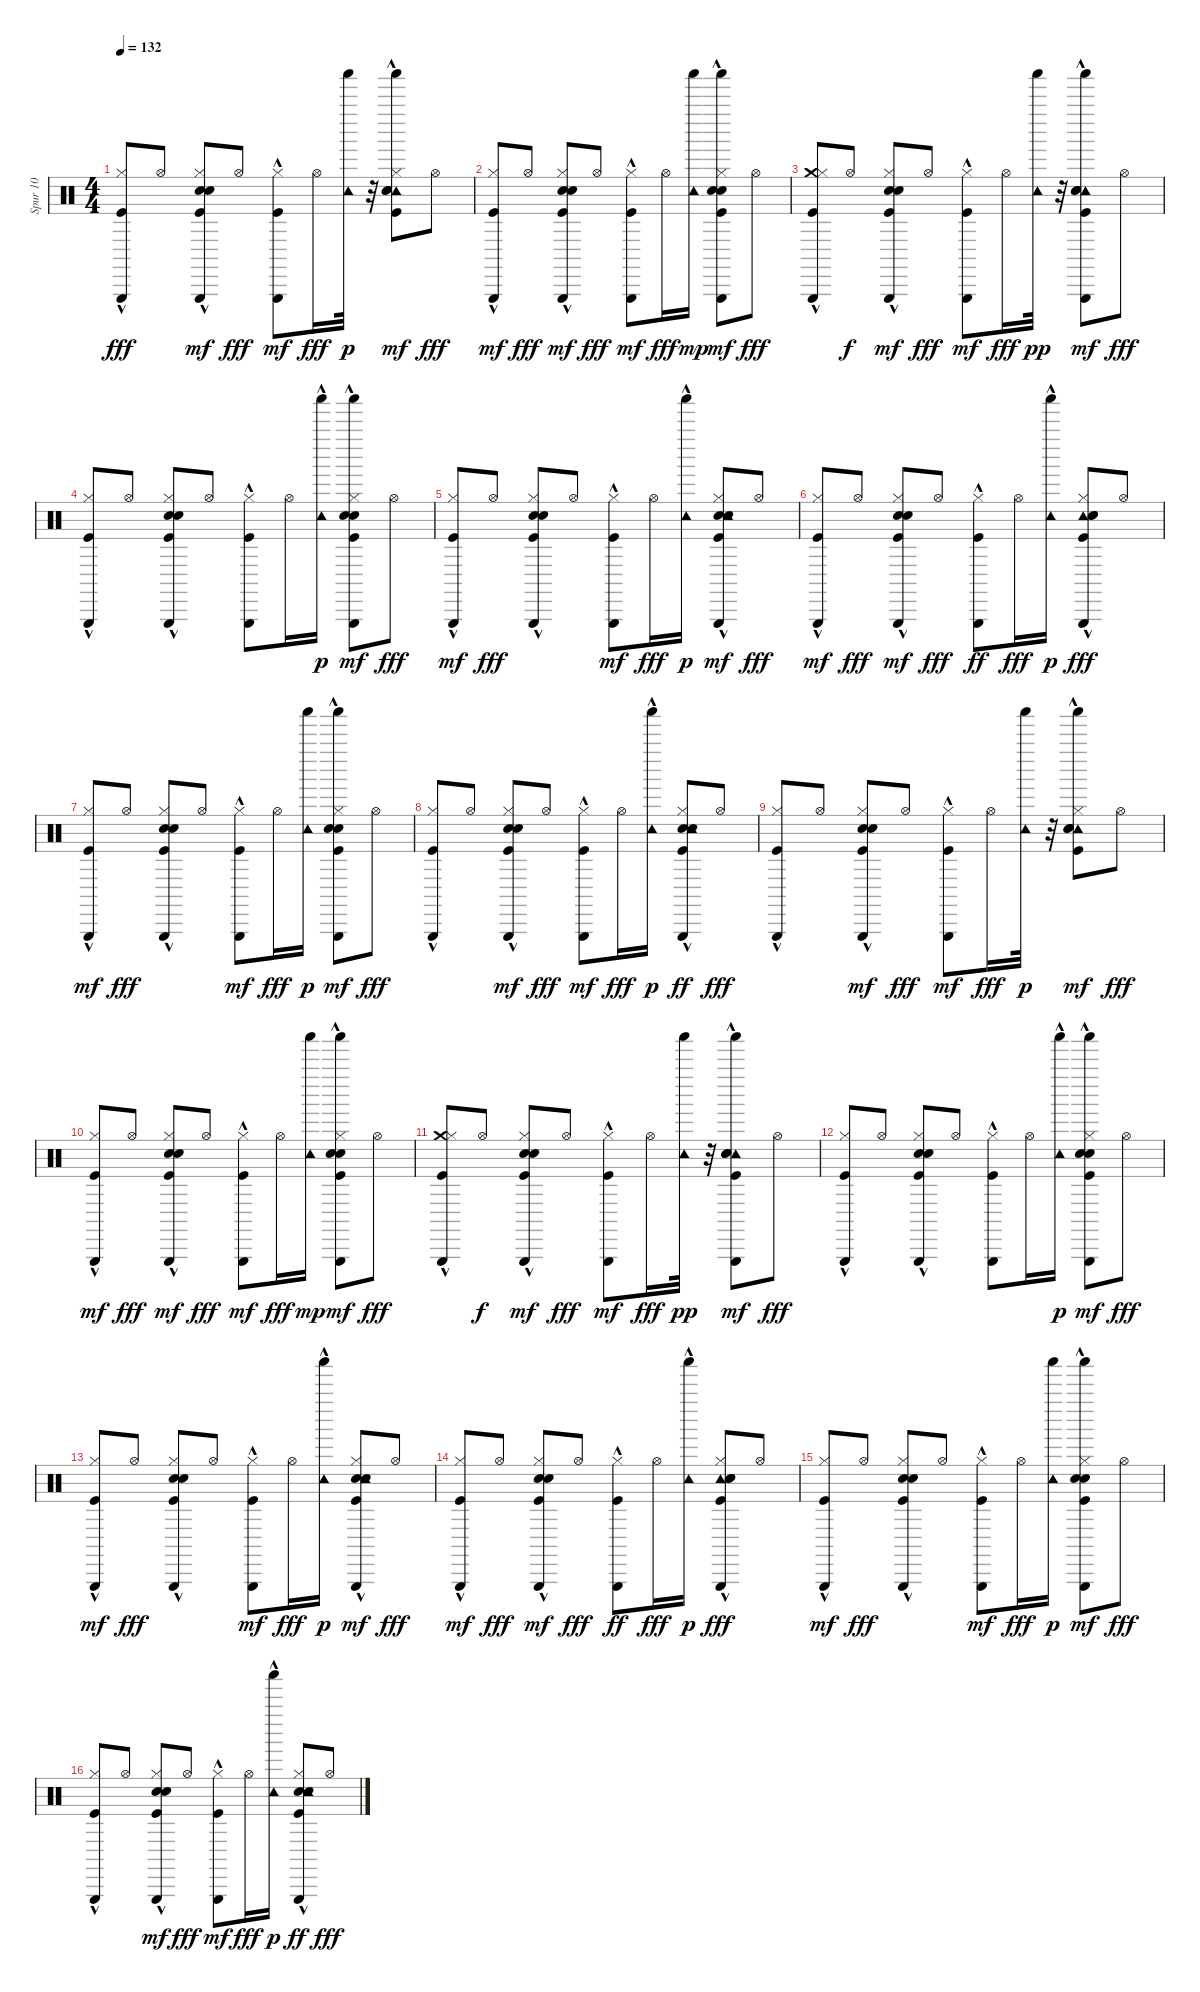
\track ("Spur 10" "Spur 10") {instrument percussion}
\staff {score}
\articulation defaults
\ts (4 4)
\tempo 132
\clef neutral
\ks c
("Triangle (hit)"{hac} "Kick (hit)"{hac} "Hi-Hat (closed)").8{dy fff} "Hi-Hat (open)".8 ("Kick (hit)"{hac} "Hand Clap (hit)"{hac} "Snare (hit) 2"{hac} "Hi-Hat (closed)" "Triangle (hit)"{hac}).8{dy mf} "Hi-Hat (open)".8{dy fff} ("Hi-Hat (closed)" "Kick (hit)"{hac} "Triangle (hit)"{hac}).8{dy mf} "Hi-Hat (open)".16{dy fff} ("Tambourine (hit)" "Shaker (hit)").32{dy p} r.32 ("Shaker (hit)" "Tambourine (hit)"{hac} "Hi-Hat (closed)" "Kick (hit)"{hac} "Hand Clap (hit)"{hac} "Snare (hit) 2"{hac}).8{dy mf} "Hi-Hat (open)".8{dy fff} |
("Hi-Hat (closed)" "Kick (hit)"{hac} "Triangle (hit)"{hac}).8{dy mf} "Hi-Hat (open)".8{dy fff} ("Hi-Hat (closed)" "Kick (hit)"{hac} "Snare (hit) 2"{hac} "Hand Clap (hit)"{hac} "Triangle (hit)"{hac}).8{dy mf} "Hi-Hat (open)".8{dy fff} ("Kick (hit)"{hac} "Hi-Hat (closed)" "Triangle (hit)"{hac}).8{dy mf} "Hi-Hat (open)".16{dy fff} ("Shaker (hit)" "Tambourine (hit)").16{dy mp} ("Shaker (hit)"{hac} "Triangle (hit)"{hac} "Hi-Hat (closed)" "Kick (hit)" "Hand Clap (hit)"{hac} "Snare (hit) 2"{hac}).8{dy mf} "Hi-Hat (open)".8{dy fff} |
("Crash medium (hit)" "Triangle (hit)"{hac} "Hi-Hat (closed)" "Kick (hit)").8 "Hi-Hat (open)".8{dy f} ("Snare (hit) 2"{hac} "Hand Clap (hit)"{hac} "Kick (hit)"{hac} "Hi-Hat (closed)" "Triangle (hit)").8{dy mf} "Hi-Hat (open)".8{dy fff} ("Kick (hit)"{hac} "Hi-Hat (closed)"{hac} "Triangle (hit)"{hac}).8{dy mf} "Hi-Hat (open)".16{dy fff} ("Tambourine (hit)" "Shaker (hit)").32{dy pp} r.32 ("Shaker (hit)" "Tambourine (hit)"{hac} "Triangle (hit)" "Kick (hit)"{hac} "Hand Clap (hit)"{hac} "Snare (hit) 2"{hac}).8{dy mf} "Hi-Hat (open)".8{dy fff} |
("Triangle (hit)"{hac} "Hi-Hat (closed)" "Kick (hit)"{hac}).8 "Hi-Hat (open)".8 ("Triangle (hit)" "Hi-Hat (closed)" "Hand Clap (hit)"{hac} "Snare (hit) 2"{hac} "Kick (hit)"{hac}).8 "Hi-Hat (open)".8 ("Triangle (hit)"{hac} "Hi-Hat (closed)" "Kick (hit)"{hac}).8 "Hi-Hat (open)".16 ("Tambourine (hit)"{hac} "Shaker (hit)").16{dy p} ("Shaker (hit)" "Triangle (hit)"{hac} "Hi-Hat (closed)" "Kick (hit)"{hac} "Hand Clap (hit)"{hac} "Snare (hit) 2"{hac}).8{dy mf} "Hi-Hat (open)".8{dy fff} |
("Kick (hit)"{hac} "Hi-Hat (closed)" "Triangle (hit)"{hac}).8{dy mf} "Hi-Hat (open)".8{dy fff} ("Triangle (hit)"{hac} "Kick (hit)"{hac} "Hand Clap (hit)"{hac} "Snare (hit) 2"{hac} "Hi-Hat (closed)").8 "Hi-Hat (open)".8 ("Kick (hit)"{hac} "Hi-Hat (closed)" "Triangle (hit)"{hac}).8{dy mf} "Hi-Hat (open)".16{dy fff} ("Tambourine (hit)" "Shaker (hit)"{hac}).16{dy p} ("Kick (hit)"{hac} "Snare (hit) 2"{hac} "Hand Clap (hit)"{hac} "Hi-Hat (closed)" "Triangle (hit)"{hac} "Tambourine (hit)"{hac}).8{dy mf} "Hi-Hat (open)".8{dy fff} |
("Kick (hit)"{hac} "Hi-Hat (closed)" "Triangle (hit)"{hac}).8{dy mf} "Hi-Hat (open)".8{dy fff} ("Triangle (hit)"{hac} "Hi-Hat (closed)" "Kick (hit)"{hac} "Hand Clap (hit)"{hac} "Snare (hit) 2"{hac}).8{dy mf} "Hi-Hat (open)".8{dy fff} ("Triangle (hit)"{hac} "Kick (hit)"{hac} "Hi-Hat (closed)").8{dy ff} "Hi-Hat (open)".16{dy fff} ("Tambourine (hit)" "Shaker (hit)"{hac}).16{dy p} ("Tambourine (hit)"{hac} "Triangle (hit)"{hac} "Kick (hit)"{hac} "Snare (hit) 2"{hac} "Hand Clap (hit)"{hac} "Hi-Hat (closed)").8{dy fff} "Hi-Hat (open)".8 |
("Kick (hit)"{hac} "Hi-Hat (closed)" "Triangle (hit)"{hac}).8{dy mf} "Hi-Hat (open)".8{dy fff} ("Triangle (hit)"{hac} "Hi-Hat (closed)" "Hand Clap (hit)"{hac} "Snare (hit) 2"{hac} "Kick (hit)"{hac}).8 "Hi-Hat (open)".8 ("Hi-Hat (closed)" "Kick (hit)"{hac} "Triangle (hit)"{hac}).8{dy mf} "Hi-Hat (open)".16{dy fff} ("Shaker (hit)" "Tambourine (hit)").16{dy p} ("Shaker (hit)" "Triangle (hit)"{hac} "Hi-Hat (closed)" "Kick (hit)"{hac} "Hand Clap (hit)"{hac} "Snare (hit) 2"{hac}).8{dy mf} "Hi-Hat (open)".8{dy fff} |
("Triangle (hit)"{hac} "Hi-Hat (closed)" "Kick (hit)"{hac}).8 "Hi-Hat (open)".8 ("Hi-Hat (closed)" "Kick (hit)"{hac} "Snare (hit) 2"{hac} "Hand Clap (hit)"{hac} "Triangle (hit)"{hac}).8{dy mf} "Hi-Hat (open)".8{dy fff} ("Kick (hit)"{hac} "Hi-Hat (closed)" "Triangle (hit)"{hac}).8{dy mf} "Hi-Hat (open)".16{dy fff} ("Tambourine (hit)" "Shaker (hit)"{hac}).16{dy p} ("Triangle (hit)"{hac} "Hi-Hat (closed)" "Hand Clap (hit)"{hac} "Snare (hit) 2"{hac} "Kick (hit)"{hac} "Tambourine (hit)").8{dy ff} "Hi-Hat (open)".8{dy fff} |
("Triangle (hit)"{hac} "Kick (hit)"{hac} "Hi-Hat (closed)").8 "Hi-Hat (open)".8 ("Kick (hit)"{hac} "Hand Clap (hit)"{hac} "Snare (hit) 2"{hac} "Hi-Hat (closed)" "Triangle (hit)"{hac}).8{dy mf} "Hi-Hat (open)".8{dy fff} ("Hi-Hat (closed)" "Kick (hit)"{hac} "Triangle (hit)"{hac}).8{dy mf} "Hi-Hat (open)".16{dy fff} ("Tambourine (hit)" "Shaker (hit)").32{dy p} r.32 ("Shaker (hit)" "Tambourine (hit)"{hac} "Hi-Hat (closed)" "Kick (hit)"{hac} "Hand Clap (hit)"{hac} "Snare (hit) 2"{hac}).8{dy mf} "Hi-Hat (open)".8{dy fff} |
("Hi-Hat (closed)" "Kick (hit)"{hac} "Triangle (hit)"{hac}).8{dy mf} "Hi-Hat (open)".8{dy fff} ("Hi-Hat (closed)" "Kick (hit)"{hac} "Snare (hit) 2"{hac} "Hand Clap (hit)"{hac} "Triangle (hit)"{hac}).8{dy mf} "Hi-Hat (open)".8{dy fff} ("Kick (hit)"{hac} "Hi-Hat (closed)" "Triangle (hit)"{hac}).8{dy mf} "Hi-Hat (open)".16{dy fff} ("Shaker (hit)" "Tambourine (hit)").16{dy mp} ("Shaker (hit)"{hac} "Triangle (hit)"{hac} "Hi-Hat (closed)" "Kick (hit)" "Hand Clap (hit)"{hac} "Snare (hit) 2"{hac}).8{dy mf} "Hi-Hat (open)".8{dy fff} |
("Crash medium (hit)" "Triangle (hit)"{hac} "Hi-Hat (closed)" "Kick (hit)").8 "Hi-Hat (open)".8{dy f} ("Snare (hit) 2"{hac} "Hand Clap (hit)"{hac} "Kick (hit)"{hac} "Hi-Hat (closed)" "Triangle (hit)").8{dy mf} "Hi-Hat (open)".8{dy fff} ("Kick (hit)"{hac} "Hi-Hat (closed)"{hac} "Triangle (hit)"{hac}).8{dy mf} "Hi-Hat (open)".16{dy fff} ("Tambourine (hit)" "Shaker (hit)").32{dy pp} r.32 ("Shaker (hit)" "Tambourine (hit)"{hac} "Triangle (hit)" "Kick (hit)"{hac} "Hand Clap (hit)"{hac} "Snare (hit) 2"{hac}).8{dy mf} "Hi-Hat (open)".8{dy fff} |
("Triangle (hit)"{hac} "Hi-Hat (closed)" "Kick (hit)"{hac}).8 "Hi-Hat (open)".8 ("Triangle (hit)" "Hi-Hat (closed)" "Hand Clap (hit)"{hac} "Snare (hit) 2"{hac} "Kick (hit)"{hac}).8 "Hi-Hat (open)".8 ("Triangle (hit)"{hac} "Hi-Hat (closed)" "Kick (hit)"{hac}).8 "Hi-Hat (open)".16 ("Tambourine (hit)"{hac} "Shaker (hit)").16{dy p} ("Shaker (hit)" "Triangle (hit)"{hac} "Hi-Hat (closed)" "Kick (hit)"{hac} "Hand Clap (hit)"{hac} "Snare (hit) 2"{hac}).8{dy mf} "Hi-Hat (open)".8{dy fff} |
("Kick (hit)"{hac} "Hi-Hat (closed)" "Triangle (hit)"{hac}).8{dy mf} "Hi-Hat (open)".8{dy fff} ("Triangle (hit)"{hac} "Kick (hit)"{hac} "Hand Clap (hit)"{hac} "Snare (hit) 2"{hac} "Hi-Hat (closed)").8 "Hi-Hat (open)".8 ("Kick (hit)"{hac} "Hi-Hat (closed)" "Triangle (hit)"{hac}).8{dy mf} "Hi-Hat (open)".16{dy fff} ("Tambourine (hit)" "Shaker (hit)"{hac}).16{dy p} ("Kick (hit)"{hac} "Snare (hit) 2"{hac} "Hand Clap (hit)"{hac} "Hi-Hat (closed)" "Triangle (hit)"{hac} "Tambourine (hit)"{hac}).8{dy mf} "Hi-Hat (open)".8{dy fff} |
("Kick (hit)"{hac} "Hi-Hat (closed)" "Triangle (hit)"{hac}).8{dy mf} "Hi-Hat (open)".8{dy fff} ("Triangle (hit)"{hac} "Hi-Hat (closed)" "Kick (hit)"{hac} "Hand Clap (hit)"{hac} "Snare (hit) 2"{hac}).8{dy mf} "Hi-Hat (open)".8{dy fff} ("Triangle (hit)"{hac} "Kick (hit)"{hac} "Hi-Hat (closed)").8{dy ff} "Hi-Hat (open)".16{dy fff} ("Tambourine (hit)" "Shaker (hit)"{hac}).16{dy p} ("Tambourine (hit)"{hac} "Triangle (hit)"{hac} "Kick (hit)"{hac} "Snare (hit) 2"{hac} "Hand Clap (hit)"{hac} "Hi-Hat (closed)").8{dy fff} "Hi-Hat (open)".8 |
("Kick (hit)"{hac} "Hi-Hat (closed)" "Triangle (hit)"{hac}).8{dy mf} "Hi-Hat (open)".8{dy fff} ("Triangle (hit)"{hac} "Hi-Hat (closed)" "Hand Clap (hit)"{hac} "Snare (hit) 2"{hac} "Kick (hit)"{hac}).8 "Hi-Hat (open)".8 ("Hi-Hat (closed)" "Kick (hit)"{hac} "Triangle (hit)"{hac}).8{dy mf} "Hi-Hat (open)".16{dy fff} ("Shaker (hit)" "Tambourine (hit)").16{dy p} ("Shaker (hit)" "Triangle (hit)"{hac} "Hi-Hat (closed)" "Kick (hit)"{hac} "Hand Clap (hit)"{hac} "Snare (hit) 2"{hac}).8{dy mf} "Hi-Hat (open)".8{dy fff} |
("Triangle (hit)"{hac} "Hi-Hat (closed)" "Kick (hit)"{hac}).8 "Hi-Hat (open)".8 ("Hi-Hat (closed)" "Kick (hit)"{hac} "Snare (hit) 2"{hac} "Hand Clap (hit)"{hac} "Triangle (hit)"{hac}).8{dy mf} "Hi-Hat (open)".8{dy fff} ("Kick (hit)"{hac} "Hi-Hat (closed)" "Triangle (hit)"{hac}).8{dy mf} "Hi-Hat (open)".16{dy fff} ("Tambourine (hit)" "Shaker (hit)"{hac}).16{dy p} ("Triangle (hit)"{hac} "Hi-Hat (closed)" "Hand Clap (hit)"{hac} "Snare (hit) 2"{hac} "Kick (hit)"{hac} "Tambourine (hit)").8{dy ff} "Hi-Hat (open)".8{dy fff}
